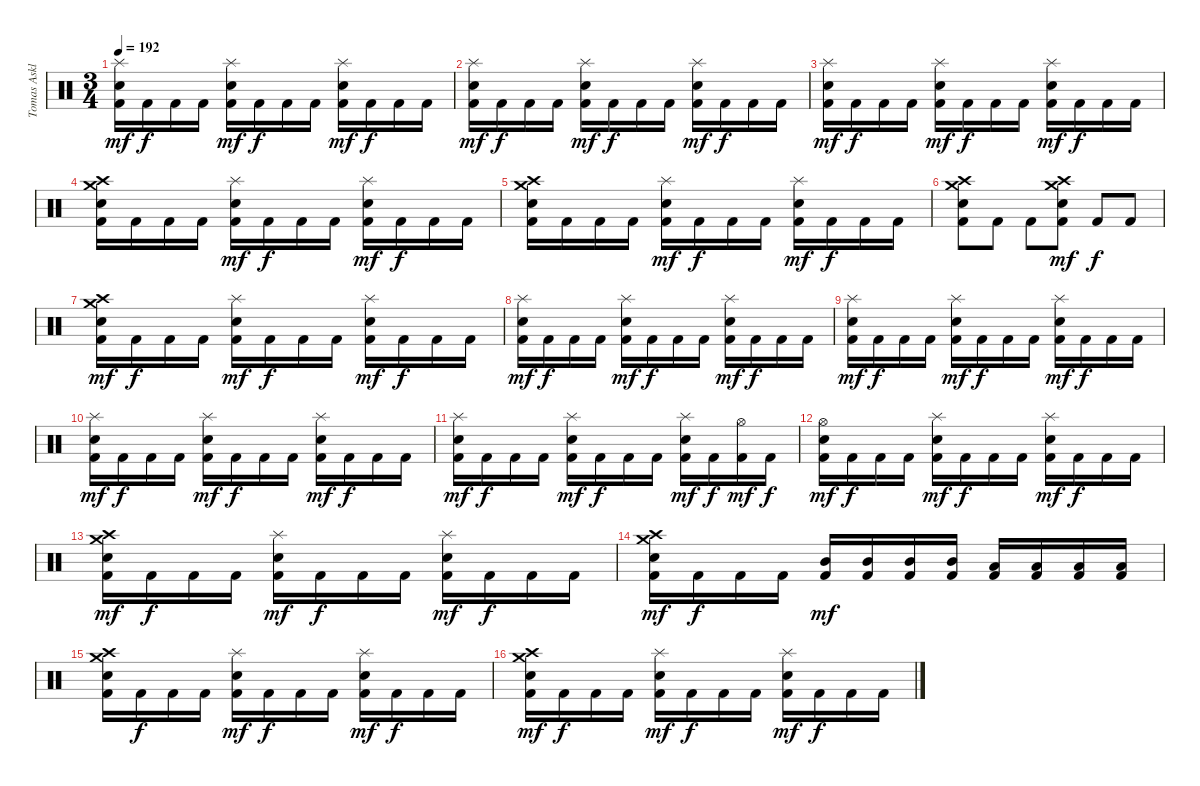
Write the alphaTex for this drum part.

\track ("Tomas Asklund" "Tomas Askl") {instrument percussion}
\staff {score}
\articulation defaults
\ts (3 4)
\tempo 192
\clef neutral
\ks c
("Splash (hit)" "Snare (hit) 2" "Kick (hit) 2").16{dy mf} "Kick (hit) 2".16{dy f} "Kick (hit) 2".16 "Kick (hit) 2".16 ("Splash (hit)" "Snare (hit) 2" "Kick (hit) 2").16{dy mf} "Kick (hit) 2".16{dy f} "Kick (hit) 2".16 "Kick (hit) 2".16 ("Splash (hit)" "Snare (hit) 2" "Kick (hit) 2").16{dy mf} "Kick (hit) 2".16{dy f} "Kick (hit) 2".16 "Kick (hit) 2".16 |
("Splash (hit)" "Snare (hit) 2" "Kick (hit) 2").16{dy mf} "Kick (hit) 2".16{dy f} "Kick (hit) 2".16 "Kick (hit) 2".16 ("Splash (hit)" "Snare (hit) 2" "Kick (hit) 2").16{dy mf} "Kick (hit) 2".16{dy f} "Kick (hit) 2".16 "Kick (hit) 2".16 ("Splash (hit)" "Snare (hit) 2" "Kick (hit) 2").16{dy mf} "Kick (hit) 2".16{dy f} "Kick (hit) 2".16 "Kick (hit) 2".16 |
("Splash (hit)" "Snare (hit) 2" "Kick (hit) 2").16{dy mf} "Kick (hit) 2".16{dy f} "Kick (hit) 2".16 "Kick (hit) 2".16 ("Splash (hit)" "Snare (hit) 2" "Kick (hit) 2").16{dy mf} "Kick (hit) 2".16{dy f} "Kick (hit) 2".16 "Kick (hit) 2".16 ("Splash (hit)" "Snare (hit) 2" "Kick (hit) 2").16{dy mf} "Kick (hit) 2".16{dy f} "Kick (hit) 2".16 "Kick (hit) 2".16 |
("Crash high (hit)" "Crash medium (hit)" "Snare (hit) 2" "Kick (hit) 2").16 "Kick (hit) 2".16 "Kick (hit) 2".16 "Kick (hit) 2".16 ("Splash (hit)" "Snare (hit) 2" "Kick (hit) 2").16{dy mf} "Kick (hit) 2".16{dy f} "Kick (hit) 2".16 "Kick (hit) 2".16 ("Splash (hit)" "Snare (hit) 2" "Kick (hit) 2").16{dy mf} "Kick (hit) 2".16{dy f} "Kick (hit) 2".16 "Kick (hit) 2".16 |
("Crash high (hit)" "Crash medium (hit)" "Snare (hit) 2" "Kick (hit) 2").16 "Kick (hit) 2".16 "Kick (hit) 2".16 "Kick (hit) 2".16 ("Splash (hit)" "Snare (hit) 2" "Kick (hit) 2").16{dy mf} "Kick (hit) 2".16{dy f} "Kick (hit) 2".16 "Kick (hit) 2".16 ("Splash (hit)" "Snare (hit) 2" "Kick (hit) 2").16{dy mf} "Kick (hit) 2".16{dy f} "Kick (hit) 2".16 "Kick (hit) 2".16 |
("Crash medium (hit)" "Crash high (hit)" "Snare (hit) 2" "Kick (hit) 2").8 "Kick (hit) 2".8 "Kick (hit) 2".8 ("Crash medium (hit)" "Crash high (hit)" "Snare (hit) 2" "Kick (hit) 2").8{dy mf} "Kick (hit) 2".8{dy f} "Kick (hit) 2".8 |
("Crash medium (hit)" "Crash high (hit)" "Snare (hit) 2" "Kick (hit) 2").16{dy mf} "Kick (hit) 2".16{dy f} "Kick (hit) 2".16 "Kick (hit) 2".16 ("Splash (hit)" "Snare (hit) 2" "Kick (hit) 2").16{dy mf} "Kick (hit) 2".16{dy f} "Kick (hit) 2".16 "Kick (hit) 2".16 ("Splash (hit)" "Snare (hit) 2" "Kick (hit) 2").16{dy mf} "Kick (hit) 2".16{dy f} "Kick (hit) 2".16 "Kick (hit) 2".16 |
("Splash (hit)" "Snare (hit) 2" "Kick (hit) 2").16{dy mf} "Kick (hit) 2".16{dy f} "Kick (hit) 2".16 "Kick (hit) 2".16 ("Splash (hit)" "Snare (hit) 2" "Kick (hit) 2").16{dy mf} "Kick (hit) 2".16{dy f} "Kick (hit) 2".16 "Kick (hit) 2".16 ("Splash (hit)" "Snare (hit) 2" "Kick (hit) 2").16{dy mf} "Kick (hit) 2".16{dy f} "Kick (hit) 2".16 "Kick (hit) 2".16 |
("Splash (hit)" "Snare (hit) 2" "Kick (hit) 2").16{dy mf} "Kick (hit) 2".16{dy f} "Kick (hit) 2".16 "Kick (hit) 2".16 ("Splash (hit)" "Snare (hit) 2" "Kick (hit) 2").16{dy mf} "Kick (hit) 2".16{dy f} "Kick (hit) 2".16 "Kick (hit) 2".16 ("Splash (hit)" "Snare (hit) 2" "Kick (hit) 2").16{dy mf} "Kick (hit) 2".16{dy f} "Kick (hit) 2".16 "Kick (hit) 2".16 |
("Splash (hit)" "Snare (hit) 2" "Kick (hit) 2").16{dy mf} "Kick (hit) 2".16{dy f} "Kick (hit) 2".16 "Kick (hit) 2".16 ("Splash (hit)" "Snare (hit) 2" "Kick (hit) 2").16{dy mf} "Kick (hit) 2".16{dy f} "Kick (hit) 2".16 "Kick (hit) 2".16 ("Splash (hit)" "Snare (hit) 2" "Kick (hit) 2").16{dy mf} "Kick (hit) 2".16{dy f} "Kick (hit) 2".16 "Kick (hit) 2".16 |
("Splash (hit)" "Snare (hit) 2" "Kick (hit) 2").16{dy mf} "Kick (hit) 2".16{dy f} "Kick (hit) 2".16 "Kick (hit) 2".16 ("Splash (hit)" "Snare (hit) 2" "Kick (hit) 2").16{dy mf} "Kick (hit) 2".16{dy f} "Kick (hit) 2".16 "Kick (hit) 2".16 ("Splash (hit)" "Snare (hit) 2" "Kick (hit) 2").16{dy mf} "Kick (hit) 2".16{dy f} ("Hi-Hat (open)" "Kick (hit) 2").16{dy mf} "Kick (hit) 2".16{dy f} |
("Hi-Hat (open)" "Snare (hit) 2" "Kick (hit) 2").16{dy mf} "Kick (hit) 2".16{dy f} "Kick (hit) 2".16 "Kick (hit) 2".16 ("Splash (hit)" "Snare (hit) 2" "Kick (hit) 2").16{dy mf} "Kick (hit) 2".16{dy f} "Kick (hit) 2".16 "Kick (hit) 2".16 ("Splash (hit)" "Snare (hit) 2" "Kick (hit) 2").16{dy mf} "Kick (hit) 2".16{dy f} "Kick (hit) 2".16 "Kick (hit) 2".16 |
("Crash medium (hit)" "Crash high (hit)" "Snare (hit) 2" "Kick (hit) 2").16{dy mf} "Kick (hit) 2".16{dy f} "Kick (hit) 2".16 "Kick (hit) 2".16 ("Splash (hit)" "Snare (hit) 2" "Kick (hit) 2").16{dy mf} "Kick (hit) 2".16{dy f} "Kick (hit) 2".16 "Kick (hit) 2".16 ("Splash (hit)" "Snare (hit) 2" "Kick (hit) 2").16{dy mf} "Kick (hit) 2".16{dy f} "Kick (hit) 2".16 "Kick (hit) 2".16 |
("Crash medium (hit)" "Crash high (hit)" "Snare (hit) 2" "Kick (hit) 2").16{dy mf} "Kick (hit) 2".16{dy f} "Kick (hit) 2".16 "Kick (hit) 2".16 ("Mid Tom (hit)" "Kick (hit) 2").16{dy mf} ("Mid Tom (hit)" "Kick (hit) 2").16 ("Mid Tom (hit)" "Kick (hit) 2").16 ("Mid Tom (hit)" "Kick (hit) 2").16 ("Low Tom (hit)" "Kick (hit) 2").16 ("Low Tom (hit)" "Kick (hit) 2").16 ("Low Tom (hit)" "Kick (hit) 2").16 ("Low Tom (hit)" "Kick (hit) 2").16 |
("Crash medium (hit)" "Crash high (hit)" "Snare (hit) 2" "Kick (hit) 2").16 "Kick (hit) 2".16{dy f} "Kick (hit) 2".16 "Kick (hit) 2".16 ("Splash (hit)" "Snare (hit) 2" "Kick (hit) 2").16{dy mf} "Kick (hit) 2".16{dy f} "Kick (hit) 2".16 "Kick (hit) 2".16 ("Splash (hit)" "Snare (hit) 2" "Kick (hit) 2").16{dy mf} "Kick (hit) 2".16{dy f} "Kick (hit) 2".16 "Kick (hit) 2".16 |
("Crash medium (hit)" "Crash high (hit)" "Snare (hit) 2" "Kick (hit) 2").16{dy mf} "Kick (hit) 2".16{dy f} "Kick (hit) 2".16 "Kick (hit) 2".16 ("Splash (hit)" "Snare (hit) 2" "Kick (hit) 2").16{dy mf} "Kick (hit) 2".16{dy f} "Kick (hit) 2".16 "Kick (hit) 2".16 ("Splash (hit)" "Snare (hit) 2" "Kick (hit) 2").16{dy mf} "Kick (hit) 2".16{dy f} "Kick (hit) 2".16 "Kick (hit) 2".16
